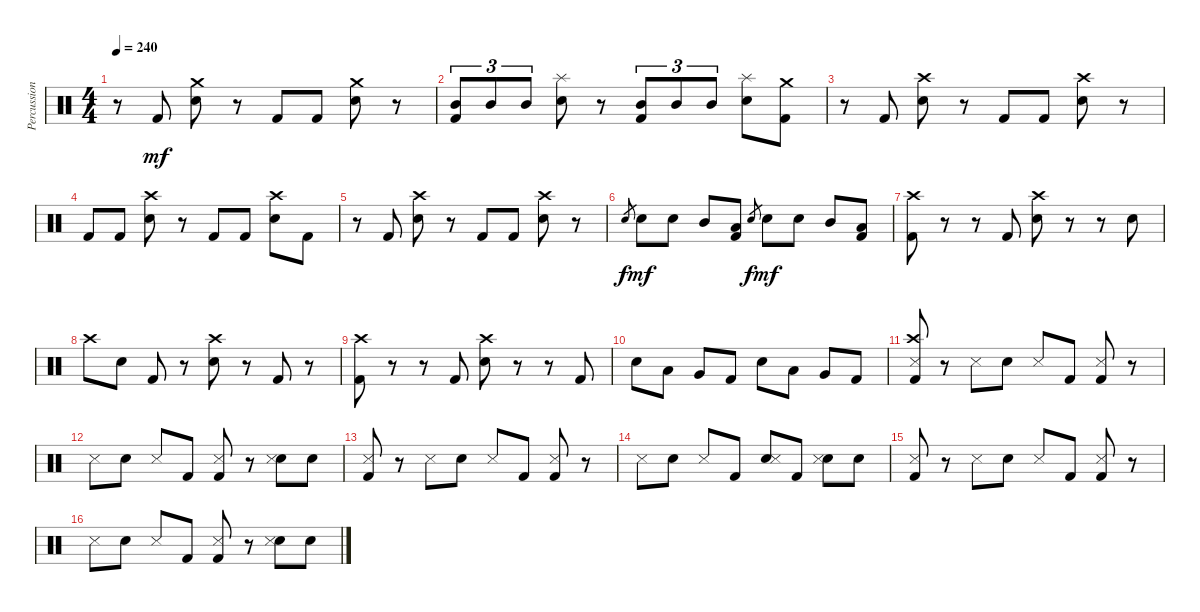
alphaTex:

\track ("Percussion" "Percussion") {instrument percussion}
\staff {score}
\articulation defaults
\ts (4 4)
\tempo 240
\clef neutral
\ks c
r.8{dy mf} "Kick (hit) 2".8 ("Electric Snare (hit)" "Crash medium (hit)").8 r.8 "Kick (hit) 2".8 "Kick (hit) 2".8 ("Electric Snare (hit)" "Crash medium (hit)").8 r.8 |
("Mid Tom (hit)" "Kick (hit) 2").8{tu (3 2)} "Mid Tom (hit)".8{tu (3 2)} "Mid Tom (hit)".8{tu (3 2)} ("Electric Snare (hit)" "Splash (hit)").8 r.8 ("Kick (hit) 2" "Mid Tom (hit)").8{tu (3 2)} "Mid Tom (hit)".8{tu (3 2)} "Mid Tom (hit)".8{tu (3 2)} ("Electric Snare (hit)" "Splash (hit)").8 ("Kick (hit) 2" "Crash medium (hit)").8 |
r.8 "Kick (hit) 2".8 ("Electric Snare (hit)" "Crash high (hit)").8 r.8 "Kick (hit) 2".8 "Kick (hit) 2".8 ("Electric Snare (hit)" "Crash high (hit)").8 r.8 |
"Kick (hit) 2".8 "Kick (hit) 2".8 ("Electric Snare (hit)" "Crash high (hit)").8 r.8 "Kick (hit) 2".8 "Kick (hit) 2".8 ("Electric Snare (hit)" "Crash high (hit)").8 "Kick (hit) 2".8 |
r.8 "Kick (hit) 2".8 ("Electric Snare (hit)" "Crash high (hit)").8 r.8 "Kick (hit) 2".8 "Kick (hit) 2".8 ("Electric Snare (hit)" "Crash high (hit)").8 r.8 |
"Electric Snare (hit)".8{gr dy f} "Electric Snare (hit)".8{dy mf} "Electric Snare (hit)".8 "Mid Tom (hit)".8 ("Low Tom (hit)" "Kick (hit) 2").8 "Electric Snare (hit)".8{gr dy f} "Electric Snare (hit)".8{dy mf} "Electric Snare (hit)".8 "Mid Tom (hit)".8 ("Low Tom (hit)" "Kick (hit) 2").8 |
("Kick (hit) 2" "Crash high (hit)").8 r.8 r.8 "Kick (hit) 2".8 ("Electric Snare (hit)" "Crash high (hit)").8 r.8 r.8 "Electric Snare (hit)".8 |
"Crash high (hit)".8 "Electric Snare (hit)".8 "Kick (hit) 2".8 r.8 ("Electric Snare (hit)" "Crash high (hit)").8 r.8 "Kick (hit) 2".8 r.8 |
("Kick (hit) 2" "Crash high (hit)").8 r.8 r.8 "Kick (hit) 2".8 ("Electric Snare (hit)" "Crash high (hit)").8 r.8 r.8 "Kick (hit) 2".8 |
"Electric Snare (hit)".8 "Low Tom (hit)".8 "Very Low Tom (hit)".8 "Kick (hit) 2".8 "Electric Snare (hit)".8 "Low Tom (hit)".8 "Very Low Tom (hit)".8 "Kick (hit) 2".8 |
("Kick (hit) 2" "Snare (side stick) 3" "Crash high (hit)").8 r.8 "Snare (side stick) 3".8 "Electric Snare (hit)".8 "Snare (side stick) 3".8 "Kick (hit) 2".8 ("Kick (hit) 2" "Snare (side stick) 3").8 r.8 |
"Snare (side stick) 3".8 "Electric Snare (hit)".8 "Snare (side stick) 3".8 "Kick (hit) 2".8 ("Kick (hit) 2" "Snare (side stick) 3").8 r.8 ("Electric Snare (hit)" "Snare (side stick) 3").8 "Electric Snare (hit)".8 |
("Kick (hit) 2" "Snare (side stick) 3").8 r.8 "Snare (side stick) 3".8 "Electric Snare (hit)".8 "Snare (side stick) 3".8 "Kick (hit) 2".8 ("Kick (hit) 2" "Snare (side stick) 3").8 r.8 |
"Snare (side stick) 3".8 "Electric Snare (hit)".8 "Snare (side stick) 3".8 "Kick (hit) 2".8 ("Electric Snare (hit)" "Snare (side stick) 3").8 "Kick (hit) 2".8 ("Electric Snare (hit)" "Snare (side stick) 3").8 "Electric Snare (hit)".8 |
("Kick (hit) 2" "Snare (side stick) 3").8 r.8 "Snare (side stick) 3".8 "Electric Snare (hit)".8 "Snare (side stick) 3".8 "Kick (hit) 2".8 ("Kick (hit) 2" "Snare (side stick) 3").8 r.8 |
"Snare (side stick) 3".8 "Electric Snare (hit)".8 "Snare (side stick) 3".8 "Kick (hit) 2".8 ("Kick (hit) 2" "Snare (side stick) 3").8 r.8 ("Electric Snare (hit)" "Snare (side stick) 3").8 "Electric Snare (hit)".8
